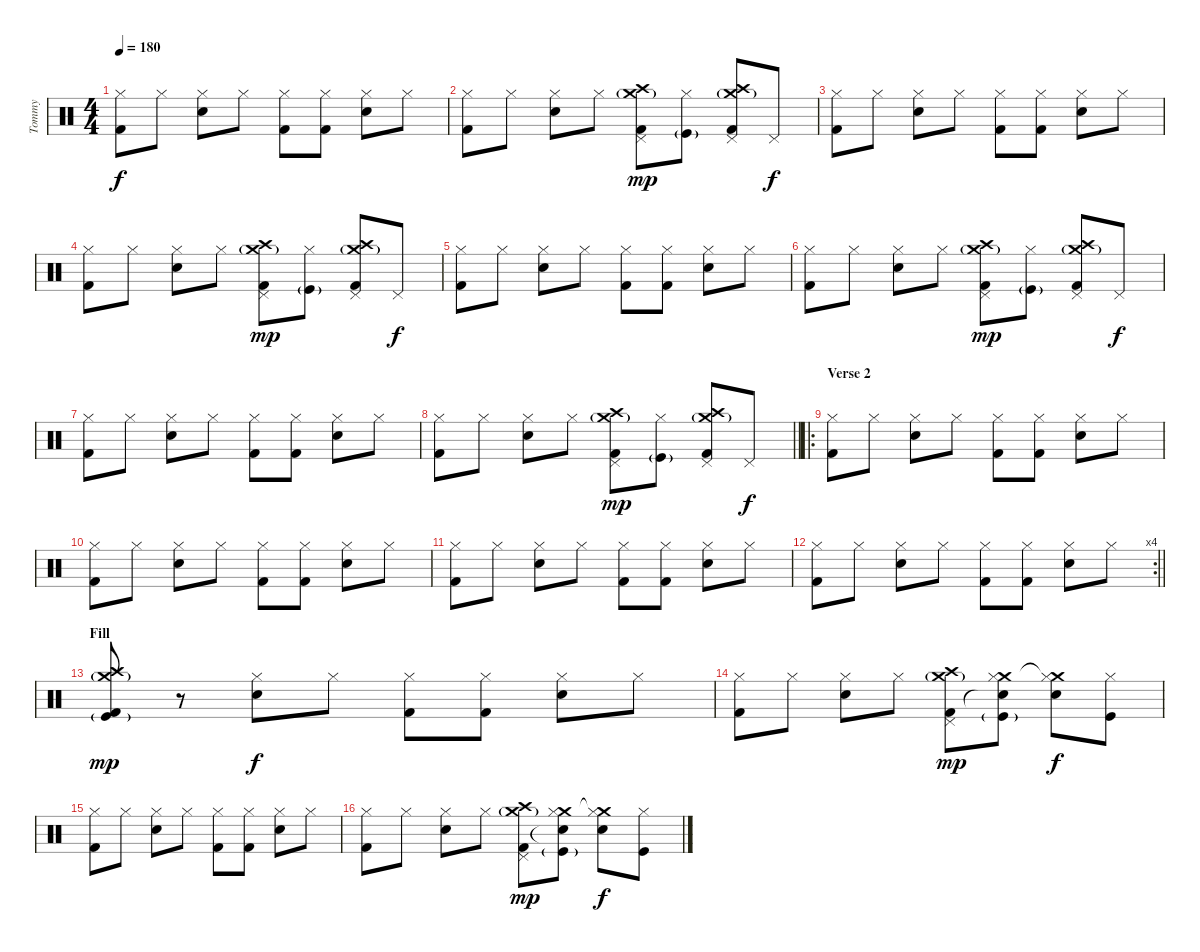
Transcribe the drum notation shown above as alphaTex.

\track ("Tommy" "Tommy") {instrument percussion}
\staff {score}
\articulation defaults
\ts (4 4)
\tempo 180
\clef neutral
\ks c
("Hi-Hat (closed)" "Kick (hit) 2").8{dy f} "Hi-Hat (closed)".8 ("Hi-Hat (closed)" "Electric Snare (hit)").8 "Hi-Hat (closed)".8 ("Hi-Hat (closed)" "Kick (hit) 2").8 ("Hi-Hat (closed)" "Kick (hit) 2").8 ("Hi-Hat (closed)" "Electric Snare (hit)").8 "Hi-Hat (closed)".8 |
("Hi-Hat (closed)" "Kick (hit) 2").8 "Hi-Hat (closed)".8 ("Hi-Hat (closed)" "Electric Snare (hit)").8 "Hi-Hat (closed)".8 ("Crash medium (hit)"{g} "Crash high (hit)" "Kick (hit) 2" "Pedal Hi-Hat (hit)").8{dy mp} ("Hi-Hat (closed)" "Kick (hit)"{g}).8 ("Crash medium (hit)"{g} "Crash high (hit)" "Kick (hit) 2" "Pedal Hi-Hat (hit)").8 "Pedal Hi-Hat (hit)".8{dy f} |
("Hi-Hat (closed)" "Kick (hit) 2").8 "Hi-Hat (closed)".8 ("Hi-Hat (closed)" "Electric Snare (hit)").8 "Hi-Hat (closed)".8 ("Hi-Hat (closed)" "Kick (hit) 2").8 ("Hi-Hat (closed)" "Kick (hit) 2").8 ("Hi-Hat (closed)" "Electric Snare (hit)").8 "Hi-Hat (closed)".8 |
("Hi-Hat (closed)" "Kick (hit) 2").8 "Hi-Hat (closed)".8 ("Hi-Hat (closed)" "Electric Snare (hit)").8 "Hi-Hat (closed)".8 ("Crash medium (hit)"{g} "Crash high (hit)" "Kick (hit) 2" "Pedal Hi-Hat (hit)").8{dy mp} ("Hi-Hat (closed)" "Kick (hit)"{g}).8 ("Crash medium (hit)"{g} "Crash high (hit)" "Kick (hit) 2" "Pedal Hi-Hat (hit)").8 "Pedal Hi-Hat (hit)".8{dy f} |
("Hi-Hat (closed)" "Kick (hit) 2").8 "Hi-Hat (closed)".8 ("Hi-Hat (closed)" "Electric Snare (hit)").8 "Hi-Hat (closed)".8 ("Hi-Hat (closed)" "Kick (hit) 2").8 ("Hi-Hat (closed)" "Kick (hit) 2").8 ("Hi-Hat (closed)" "Electric Snare (hit)").8 "Hi-Hat (closed)".8 |
("Hi-Hat (closed)" "Kick (hit) 2").8 "Hi-Hat (closed)".8 ("Hi-Hat (closed)" "Electric Snare (hit)").8 "Hi-Hat (closed)".8 ("Crash medium (hit)"{g} "Crash high (hit)" "Kick (hit) 2" "Pedal Hi-Hat (hit)").8{dy mp} ("Hi-Hat (closed)" "Kick (hit)"{g}).8 ("Crash medium (hit)"{g} "Crash high (hit)" "Kick (hit) 2" "Pedal Hi-Hat (hit)").8 "Pedal Hi-Hat (hit)".8{dy f} |
("Hi-Hat (closed)" "Kick (hit) 2").8 "Hi-Hat (closed)".8 ("Hi-Hat (closed)" "Electric Snare (hit)").8 "Hi-Hat (closed)".8 ("Hi-Hat (closed)" "Kick (hit) 2").8 ("Hi-Hat (closed)" "Kick (hit) 2").8 ("Hi-Hat (closed)" "Electric Snare (hit)").8 "Hi-Hat (closed)".8 |
\barLineRight lightlight
("Hi-Hat (closed)" "Kick (hit) 2").8 "Hi-Hat (closed)".8 ("Hi-Hat (closed)" "Electric Snare (hit)").8 "Hi-Hat (closed)".8 ("Crash medium (hit)"{g} "Crash high (hit)" "Kick (hit) 2" "Pedal Hi-Hat (hit)").8{dy mp} ("Hi-Hat (closed)" "Kick (hit)"{g}).8 ("Crash medium (hit)"{g} "Crash high (hit)" "Kick (hit) 2" "Pedal Hi-Hat (hit)").8 "Pedal Hi-Hat (hit)".8{dy f} |
\ro
\section ("" "Verse 2")
("Hi-Hat (closed)" "Kick (hit) 2").8 "Hi-Hat (closed)".8 ("Hi-Hat (closed)" "Electric Snare (hit)").8 "Hi-Hat (closed)".8 ("Hi-Hat (closed)" "Kick (hit) 2").8 ("Hi-Hat (closed)" "Kick (hit) 2").8 ("Hi-Hat (closed)" "Electric Snare (hit)").8 "Hi-Hat (closed)".8 |
("Hi-Hat (closed)" "Kick (hit) 2").8 "Hi-Hat (closed)".8 ("Hi-Hat (closed)" "Electric Snare (hit)").8 "Hi-Hat (closed)".8 ("Hi-Hat (closed)" "Kick (hit) 2").8 ("Hi-Hat (closed)" "Kick (hit) 2").8 ("Hi-Hat (closed)" "Electric Snare (hit)").8 "Hi-Hat (closed)".8 |
("Hi-Hat (closed)" "Kick (hit) 2").8 "Hi-Hat (closed)".8 ("Hi-Hat (closed)" "Electric Snare (hit)").8 "Hi-Hat (closed)".8 ("Hi-Hat (closed)" "Kick (hit) 2").8 ("Hi-Hat (closed)" "Kick (hit) 2").8 ("Hi-Hat (closed)" "Electric Snare (hit)").8 "Hi-Hat (closed)".8 |
\rc 4
\barLineRight lightlight
("Hi-Hat (closed)" "Kick (hit) 2").8 "Hi-Hat (closed)".8 ("Hi-Hat (closed)" "Electric Snare (hit)").8 "Hi-Hat (closed)".8 ("Hi-Hat (closed)" "Kick (hit) 2").8 ("Hi-Hat (closed)" "Kick (hit) 2").8 ("Hi-Hat (closed)" "Electric Snare (hit)").8 "Hi-Hat (closed)".8 |
\section ("" "Fill")
("Crash medium (hit)"{g} "Crash high (hit)" "Kick (hit) 2" "Kick (hit)"{g}).8{dy mp} r.8 ("Hi-Hat (closed)" "Electric Snare (hit)").8{dy f} "Hi-Hat (closed)".8 ("Hi-Hat (closed)" "Kick (hit) 2").8 ("Hi-Hat (closed)" "Kick (hit) 2").8 ("Hi-Hat (closed)" "Electric Snare (hit)").8 "Hi-Hat (closed)".8 |
("Hi-Hat (closed)" "Kick (hit) 2").8 "Hi-Hat (closed)".8 ("Hi-Hat (closed)" "Electric Snare (hit)").8 "Hi-Hat (closed)".8 ("Crash medium (hit)"{g} "Crash high (hit)" "Kick (hit) 2" "Pedal Hi-Hat (hit)").8{dy mp} ("Crash medium (hit)" "Hi-Hat (closed)" "Snare (hit)"{t} "Kick (hit)"{g}).8 ("Crash medium (hit)"{t} "Hi-Hat (closed)" "Electric Snare (hit)").8{dy f} ("Hi-Hat (closed)" "Kick (hit)").8 |
("Hi-Hat (closed)" "Kick (hit) 2").8 "Hi-Hat (closed)".8 ("Hi-Hat (closed)" "Electric Snare (hit)").8 "Hi-Hat (closed)".8 ("Hi-Hat (closed)" "Kick (hit) 2").8 ("Hi-Hat (closed)" "Kick (hit) 2").8 ("Hi-Hat (closed)" "Electric Snare (hit)").8 "Hi-Hat (closed)".8 |
("Hi-Hat (closed)" "Kick (hit) 2").8 "Hi-Hat (closed)".8 ("Hi-Hat (closed)" "Electric Snare (hit)").8 "Hi-Hat (closed)".8 ("Crash medium (hit)"{g} "Crash high (hit)" "Kick (hit) 2" "Pedal Hi-Hat (hit)").8{dy mp} ("Crash medium (hit)" "Hi-Hat (closed)" "Snare (hit)"{t} "Kick (hit)"{g}).8 ("Crash medium (hit)"{t} "Hi-Hat (closed)" "Electric Snare (hit)").8{dy f} ("Hi-Hat (closed)" "Kick (hit)").8
